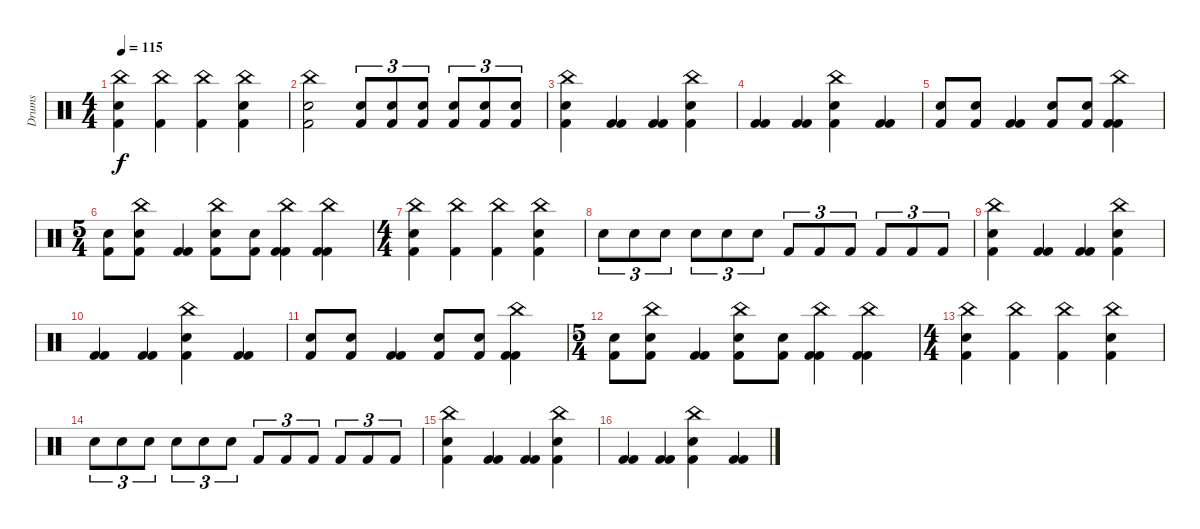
\track ("Drums" "Drums") {instrument percussion}
\staff {score}
\articulation defaults
\ts (4 4)
\tempo 115
\clef neutral
\ks c
("China (hit)" "Kick (hit) 2" "Snare (hit) 2").4{dy f} ("China (hit)" "Kick (hit) 2").4 ("China (hit)" "Kick (hit) 2").4 ("China (hit)" "Kick (hit) 2" "Snare (hit) 2").4 |
("China (hit)" "Kick (hit) 2" "Snare (hit) 2").2 ("Kick (hit) 2" "Snare (hit) 2").8{tu (3 2)} ("Kick (hit) 2" "Snare (hit) 2").8{tu (3 2)} ("Kick (hit) 2" "Snare (hit) 2").8{tu (3 2)} ("Kick (hit) 2" "Snare (hit) 2").8{tu (3 2)} ("Kick (hit) 2" "Snare (hit) 2").8{tu (3 2)} ("Kick (hit) 2" "Snare (hit) 2").8{tu (3 2)} |
("China (hit)" "Kick (hit) 2" "Snare (hit) 2").4 ("Kick (hit) 2" "Kick (hit) 2").4 ("Kick (hit) 2" "Kick (hit) 2").4 ("China (hit)" "Kick (hit) 2" "Snare (hit) 2").4 |
("Kick (hit) 2" "Kick (hit) 2").4 ("Kick (hit) 2" "Kick (hit) 2").4 ("China (hit)" "Kick (hit) 2" "Snare (hit) 2").4 ("Kick (hit) 2" "Kick (hit) 2").4 |
("Kick (hit) 2" "Snare (hit) 2").8 ("Kick (hit) 2" "Snare (hit) 2").8 ("Kick (hit) 2" "Kick (hit) 2").4 ("Kick (hit) 2" "Snare (hit) 2").8 ("Kick (hit) 2" "Snare (hit) 2").8 ("China (hit)" "Kick (hit) 2" "Kick (hit) 2").4 |
\ts (5 4)
("Kick (hit) 2" "Snare (hit) 2").8 ("China (hit)" "Kick (hit) 2" "Snare (hit) 2").8 ("Kick (hit) 2" "Kick (hit) 2").4 ("China (hit)" "Kick (hit) 2" "Snare (hit) 2").8 ("Kick (hit) 2" "Snare (hit) 2").8 ("China (hit)" "Kick (hit) 2" "Kick (hit) 2").4 ("China (hit)" "Kick (hit) 2" "Kick (hit) 2").4 |
\ts (4 4)
("China (hit)" "Kick (hit) 2" "Snare (hit) 2").4 ("China (hit)" "Kick (hit) 2").4 ("China (hit)" "Kick (hit) 2").4 ("China (hit)" "Kick (hit) 2" "Snare (hit) 2").4 |
"Snare (hit) 2".8{tu (3 2)} "Snare (hit) 2".8{tu (3 2)} "Snare (hit) 2".8{tu (3 2)} "Snare (hit) 2".8{tu (3 2)} "Snare (hit) 2".8{tu (3 2)} "Snare (hit) 2".8{tu (3 2)} "Kick (hit) 2".8{tu (3 2)} "Kick (hit) 2".8{tu (3 2)} "Kick (hit) 2".8{tu (3 2)} "Kick (hit) 2".8{tu (3 2)} "Kick (hit) 2".8{tu (3 2)} "Kick (hit) 2".8{tu (3 2)} |
("China (hit)" "Kick (hit) 2" "Snare (hit) 2").4 ("Kick (hit) 2" "Kick (hit) 2").4 ("Kick (hit) 2" "Kick (hit) 2").4 ("China (hit)" "Kick (hit) 2" "Snare (hit) 2").4 |
("Kick (hit) 2" "Kick (hit) 2").4 ("Kick (hit) 2" "Kick (hit) 2").4 ("China (hit)" "Kick (hit) 2" "Snare (hit) 2").4 ("Kick (hit) 2" "Kick (hit) 2").4 |
("Kick (hit) 2" "Snare (hit) 2").8 ("Kick (hit) 2" "Snare (hit) 2").8 ("Kick (hit) 2" "Kick (hit) 2").4 ("Kick (hit) 2" "Snare (hit) 2").8 ("Kick (hit) 2" "Snare (hit) 2").8 ("China (hit)" "Kick (hit) 2" "Kick (hit) 2").4 |
\ts (5 4)
("Kick (hit) 2" "Snare (hit) 2").8 ("China (hit)" "Kick (hit) 2" "Snare (hit) 2").8 ("Kick (hit) 2" "Kick (hit) 2").4 ("China (hit)" "Kick (hit) 2" "Snare (hit) 2").8 ("Kick (hit) 2" "Snare (hit) 2").8 ("China (hit)" "Kick (hit) 2" "Kick (hit) 2").4 ("China (hit)" "Kick (hit) 2" "Kick (hit) 2").4 |
\ts (4 4)
("China (hit)" "Kick (hit) 2" "Snare (hit) 2").4 ("China (hit)" "Kick (hit) 2").4 ("China (hit)" "Kick (hit) 2").4 ("China (hit)" "Kick (hit) 2" "Snare (hit) 2").4 |
"Snare (hit) 2".8{tu (3 2)} "Snare (hit) 2".8{tu (3 2)} "Snare (hit) 2".8{tu (3 2)} "Snare (hit) 2".8{tu (3 2)} "Snare (hit) 2".8{tu (3 2)} "Snare (hit) 2".8{tu (3 2)} "Kick (hit) 2".8{tu (3 2)} "Kick (hit) 2".8{tu (3 2)} "Kick (hit) 2".8{tu (3 2)} "Kick (hit) 2".8{tu (3 2)} "Kick (hit) 2".8{tu (3 2)} "Kick (hit) 2".8{tu (3 2)} |
("China (hit)" "Kick (hit) 2" "Snare (hit) 2").4 ("Kick (hit) 2" "Kick (hit) 2").4 ("Kick (hit) 2" "Kick (hit) 2").4 ("China (hit)" "Kick (hit) 2" "Snare (hit) 2").4 |
("Kick (hit) 2" "Kick (hit) 2").4 ("Kick (hit) 2" "Kick (hit) 2").4 ("China (hit)" "Kick (hit) 2" "Snare (hit) 2").4 ("Kick (hit) 2" "Kick (hit) 2").4
